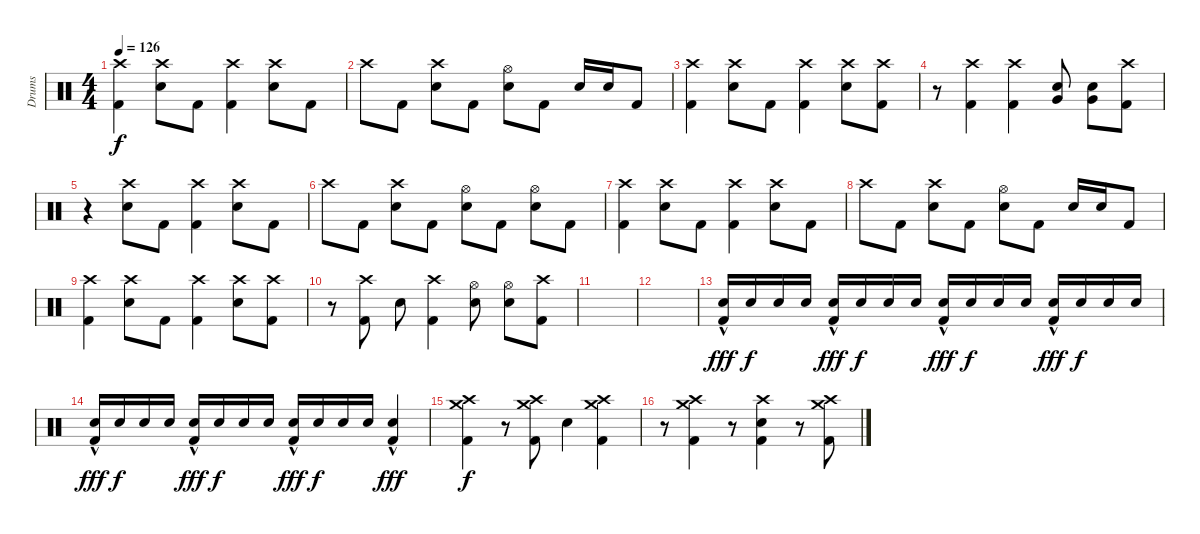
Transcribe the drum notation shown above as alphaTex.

\track ("Drums" "Drums") {instrument percussion}
\staff {score}
\articulation defaults
\ts (4 4)
\tempo 126
\clef neutral
\ks c
("Crash high (hit)" "Kick (hit) 2").4{dy f} ("Crash high (hit)" "Electric Snare (hit)").8 "Kick (hit) 2".8 ("Crash high (hit)" "Kick (hit) 2").4 ("Crash high (hit)" "Electric Snare (hit)").8 "Kick (hit) 2".8 |
"Crash high (hit)".8 "Kick (hit) 2".8 ("Crash high (hit)" "Electric Snare (hit)").8 "Kick (hit) 2".8 ("Hi-Hat (open)" "Electric Snare (hit)").8 "Kick (hit) 2".8 "Electric Snare (hit)".16 "Electric Snare (hit)".16 "Kick (hit) 2".8 |
("Crash high (hit)" "Kick (hit) 2").4 ("Crash high (hit)" "Electric Snare (hit)").8 "Kick (hit) 2".8 ("Crash high (hit)" "Kick (hit) 2").4 ("Crash high (hit)" "Electric Snare (hit)").8 ("Crash high (hit)" "Kick (hit) 2").8 |
r.8 ("Crash high (hit)" "Kick (hit) 2").4 ("Crash high (hit)" "Kick (hit) 2").4 ("Very Low Tom (hit)" "Electric Snare (hit)").8 ("Very Low Tom (hit)" "Electric Snare (hit)").8 ("Crash high (hit)" "Kick (hit) 2").8 |
r.4 ("Crash high (hit)" "Electric Snare (hit)").8 "Kick (hit) 2".8 ("Crash high (hit)" "Kick (hit) 2").4 ("Crash high (hit)" "Electric Snare (hit)").8 "Kick (hit) 2".8 |
"Crash high (hit)".8 "Kick (hit) 2".8 ("Crash high (hit)" "Electric Snare (hit)").8 "Kick (hit) 2".8 ("Hi-Hat (open)" "Electric Snare (hit)").8 "Kick (hit) 2".8 ("Hi-Hat (open)" "Electric Snare (hit)").8 "Kick (hit) 2".8 |
("Crash high (hit)" "Kick (hit) 2").4 ("Crash high (hit)" "Electric Snare (hit)").8 "Kick (hit) 2".8 ("Crash high (hit)" "Kick (hit) 2").4 ("Crash high (hit)" "Electric Snare (hit)").8 "Kick (hit) 2".8 |
"Crash high (hit)".8 "Kick (hit) 2".8 ("Crash high (hit)" "Electric Snare (hit)").8 "Kick (hit) 2".8 ("Hi-Hat (open)" "Electric Snare (hit)").8 "Kick (hit) 2".8 "Electric Snare (hit)".16 "Electric Snare (hit)".16 "Kick (hit) 2".8 |
("Crash high (hit)" "Kick (hit) 2").4 ("Crash high (hit)" "Electric Snare (hit)").8 "Kick (hit) 2".8 ("Crash high (hit)" "Kick (hit) 2").4 ("Crash high (hit)" "Electric Snare (hit)").8 ("Crash high (hit)" "Kick (hit) 2").8 |
r.8 ("Crash high (hit)" "Kick (hit) 2").8 "Electric Snare (hit)".8 ("Crash high (hit)" "Kick (hit) 2").4 ("Hi-Hat (open)" "Electric Snare (hit)").8 ("Hi-Hat (open)" "Electric Snare (hit)").8 ("Crash high (hit)" "Kick (hit) 2").8 |
|
|
("Electric Snare (hit)"{hac} "Kick (hit) 2").16{dy fff volume 13} "Electric Snare (hit)".16{dy f} "Electric Snare (hit)".16 "Electric Snare (hit)".16 ("Electric Snare (hit)"{hac} "Kick (hit) 2").16{dy fff} "Electric Snare (hit)".16{dy f} "Electric Snare (hit)".16 "Electric Snare (hit)".16 ("Electric Snare (hit)"{hac} "Kick (hit) 2").16{dy fff} "Electric Snare (hit)".16{dy f} "Electric Snare (hit)".16 "Electric Snare (hit)".16 ("Electric Snare (hit)"{hac} "Kick (hit) 2").16{dy fff} "Electric Snare (hit)".16{dy f} "Electric Snare (hit)".16 "Electric Snare (hit)".16 |
("Electric Snare (hit)"{hac} "Kick (hit) 2").16{dy fff} "Electric Snare (hit)".16{dy f} "Electric Snare (hit)".16 "Electric Snare (hit)".16 ("Electric Snare (hit)"{hac} "Kick (hit) 2").16{dy fff} "Electric Snare (hit)".16{dy f} "Electric Snare (hit)".16 "Electric Snare (hit)".16 ("Electric Snare (hit)"{hac} "Kick (hit) 2").16{dy fff} "Electric Snare (hit)".16{dy f} "Electric Snare (hit)".16 "Electric Snare (hit)".16 ("Electric Snare (hit)"{hac} "Kick (hit) 2").4{dy fff} |
("Crash high (hit)" "Crash medium (hit)" "Kick (hit) 2").4{dy f} r.8 ("Crash high (hit)" "Crash medium (hit)" "Kick (hit) 2").8 "Electric Snare (hit)".4 ("Crash high (hit)" "Crash medium (hit)" "Kick (hit) 2").4 |
r.8 ("Crash high (hit)" "Crash medium (hit)" "Kick (hit) 2").4 r.8 ("Crash high (hit)" "Electric Snare (hit)" "Kick (hit) 2").4 r.8 ("Crash high (hit)" "Crash medium (hit)" "Kick (hit) 2").8
